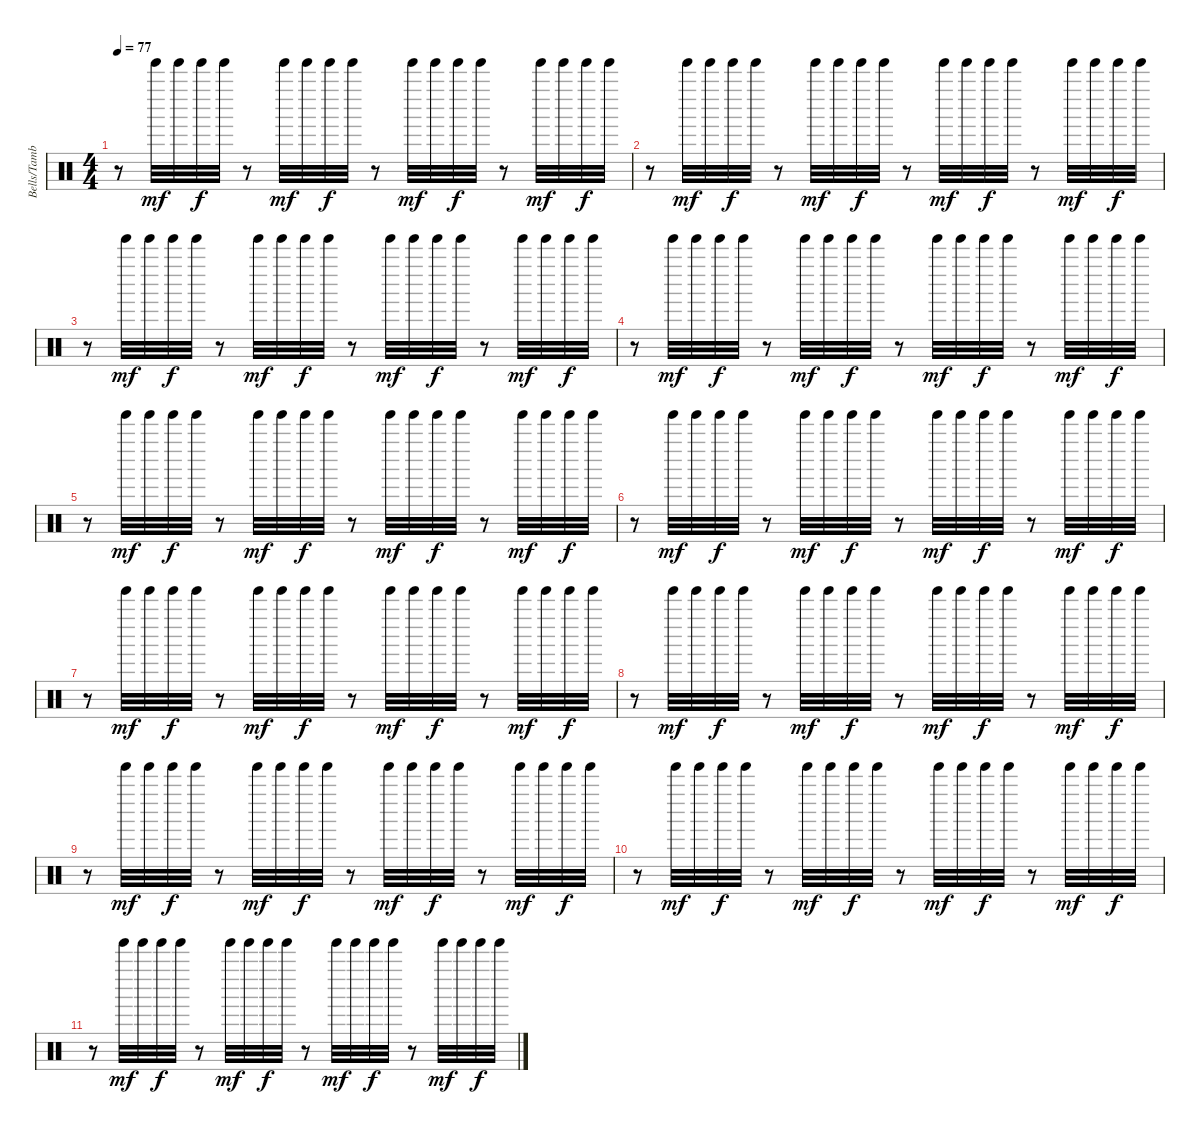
\track ("Bells/Tambo" "Bells/Tamb") {instrument percussion}
\staff {score}
\articulation defaults
\ts (4 4)
\tempo 77
\clef neutral
\ks c
r.8{dy f} "Tinkle Bell (hit)".32{dy mf} "Tinkle Bell (hit)".32 "Tinkle Bell (hit)".32{dy f} "Tinkle Bell (hit)".32 r.8 "Tinkle Bell (hit)".32{dy mf} "Tinkle Bell (hit)".32 "Tinkle Bell (hit)".32{dy f} "Tinkle Bell (hit)".32 r.8 "Tinkle Bell (hit)".32{dy mf} "Tinkle Bell (hit)".32 "Tinkle Bell (hit)".32{dy f} "Tinkle Bell (hit)".32 r.8 "Tinkle Bell (hit)".32{dy mf} "Tinkle Bell (hit)".32 "Tinkle Bell (hit)".32{dy f} "Tinkle Bell (hit)".32 |
r.8 "Tinkle Bell (hit)".32{dy mf} "Tinkle Bell (hit)".32 "Tinkle Bell (hit)".32{dy f} "Tinkle Bell (hit)".32 r.8 "Tinkle Bell (hit)".32{dy mf} "Tinkle Bell (hit)".32 "Tinkle Bell (hit)".32{dy f} "Tinkle Bell (hit)".32 r.8 "Tinkle Bell (hit)".32{dy mf} "Tinkle Bell (hit)".32 "Tinkle Bell (hit)".32{dy f} "Tinkle Bell (hit)".32 r.8 "Tinkle Bell (hit)".32{dy mf} "Tinkle Bell (hit)".32 "Tinkle Bell (hit)".32{dy f} "Tinkle Bell (hit)".32 |
r.8 "Tinkle Bell (hit)".32{dy mf} "Tinkle Bell (hit)".32 "Tinkle Bell (hit)".32{dy f} "Tinkle Bell (hit)".32 r.8 "Tinkle Bell (hit)".32{dy mf} "Tinkle Bell (hit)".32 "Tinkle Bell (hit)".32{dy f} "Tinkle Bell (hit)".32 r.8 "Tinkle Bell (hit)".32{dy mf} "Tinkle Bell (hit)".32 "Tinkle Bell (hit)".32{dy f} "Tinkle Bell (hit)".32 r.8 "Tinkle Bell (hit)".32{dy mf} "Tinkle Bell (hit)".32 "Tinkle Bell (hit)".32{dy f} "Tinkle Bell (hit)".32 |
r.8 "Tinkle Bell (hit)".32{dy mf} "Tinkle Bell (hit)".32 "Tinkle Bell (hit)".32{dy f} "Tinkle Bell (hit)".32 r.8 "Tinkle Bell (hit)".32{dy mf} "Tinkle Bell (hit)".32 "Tinkle Bell (hit)".32{dy f} "Tinkle Bell (hit)".32 r.8 "Tinkle Bell (hit)".32{dy mf} "Tinkle Bell (hit)".32 "Tinkle Bell (hit)".32{dy f} "Tinkle Bell (hit)".32 r.8 "Tinkle Bell (hit)".32{dy mf} "Tinkle Bell (hit)".32 "Tinkle Bell (hit)".32{dy f} "Tinkle Bell (hit)".32 |
r.8 "Tinkle Bell (hit)".32{dy mf} "Tinkle Bell (hit)".32 "Tinkle Bell (hit)".32{dy f} "Tinkle Bell (hit)".32 r.8 "Tinkle Bell (hit)".32{dy mf} "Tinkle Bell (hit)".32 "Tinkle Bell (hit)".32{dy f} "Tinkle Bell (hit)".32 r.8 "Tinkle Bell (hit)".32{dy mf} "Tinkle Bell (hit)".32 "Tinkle Bell (hit)".32{dy f} "Tinkle Bell (hit)".32 r.8 "Tinkle Bell (hit)".32{dy mf} "Tinkle Bell (hit)".32 "Tinkle Bell (hit)".32{dy f} "Tinkle Bell (hit)".32 |
r.8 "Tinkle Bell (hit)".32{dy mf} "Tinkle Bell (hit)".32 "Tinkle Bell (hit)".32{dy f} "Tinkle Bell (hit)".32 r.8 "Tinkle Bell (hit)".32{dy mf} "Tinkle Bell (hit)".32 "Tinkle Bell (hit)".32{dy f} "Tinkle Bell (hit)".32 r.8 "Tinkle Bell (hit)".32{dy mf} "Tinkle Bell (hit)".32 "Tinkle Bell (hit)".32{dy f} "Tinkle Bell (hit)".32 r.8 "Tinkle Bell (hit)".32{dy mf} "Tinkle Bell (hit)".32 "Tinkle Bell (hit)".32{dy f} "Tinkle Bell (hit)".32 |
r.8 "Tinkle Bell (hit)".32{dy mf} "Tinkle Bell (hit)".32 "Tinkle Bell (hit)".32{dy f} "Tinkle Bell (hit)".32 r.8 "Tinkle Bell (hit)".32{dy mf} "Tinkle Bell (hit)".32 "Tinkle Bell (hit)".32{dy f} "Tinkle Bell (hit)".32 r.8 "Tinkle Bell (hit)".32{dy mf} "Tinkle Bell (hit)".32 "Tinkle Bell (hit)".32{dy f} "Tinkle Bell (hit)".32 r.8 "Tinkle Bell (hit)".32{dy mf} "Tinkle Bell (hit)".32 "Tinkle Bell (hit)".32{dy f} "Tinkle Bell (hit)".32 |
r.8 "Tinkle Bell (hit)".32{dy mf} "Tinkle Bell (hit)".32 "Tinkle Bell (hit)".32{dy f} "Tinkle Bell (hit)".32 r.8 "Tinkle Bell (hit)".32{dy mf} "Tinkle Bell (hit)".32 "Tinkle Bell (hit)".32{dy f} "Tinkle Bell (hit)".32 r.8 "Tinkle Bell (hit)".32{dy mf} "Tinkle Bell (hit)".32 "Tinkle Bell (hit)".32{dy f} "Tinkle Bell (hit)".32 r.8 "Tinkle Bell (hit)".32{dy mf} "Tinkle Bell (hit)".32 "Tinkle Bell (hit)".32{dy f} "Tinkle Bell (hit)".32 |
r.8 "Tinkle Bell (hit)".32{dy mf} "Tinkle Bell (hit)".32 "Tinkle Bell (hit)".32{dy f} "Tinkle Bell (hit)".32 r.8 "Tinkle Bell (hit)".32{dy mf} "Tinkle Bell (hit)".32 "Tinkle Bell (hit)".32{dy f} "Tinkle Bell (hit)".32 r.8 "Tinkle Bell (hit)".32{dy mf} "Tinkle Bell (hit)".32 "Tinkle Bell (hit)".32{dy f} "Tinkle Bell (hit)".32 r.8 "Tinkle Bell (hit)".32{dy mf} "Tinkle Bell (hit)".32 "Tinkle Bell (hit)".32{dy f} "Tinkle Bell (hit)".32 |
r.8 "Tinkle Bell (hit)".32{dy mf} "Tinkle Bell (hit)".32 "Tinkle Bell (hit)".32{dy f} "Tinkle Bell (hit)".32 r.8 "Tinkle Bell (hit)".32{dy mf} "Tinkle Bell (hit)".32 "Tinkle Bell (hit)".32{dy f} "Tinkle Bell (hit)".32 r.8 "Tinkle Bell (hit)".32{dy mf} "Tinkle Bell (hit)".32 "Tinkle Bell (hit)".32{dy f} "Tinkle Bell (hit)".32 r.8 "Tinkle Bell (hit)".32{dy mf} "Tinkle Bell (hit)".32 "Tinkle Bell (hit)".32{dy f} "Tinkle Bell (hit)".32 |
r.8 "Tinkle Bell (hit)".32{dy mf} "Tinkle Bell (hit)".32 "Tinkle Bell (hit)".32{dy f} "Tinkle Bell (hit)".32 r.8 "Tinkle Bell (hit)".32{dy mf} "Tinkle Bell (hit)".32 "Tinkle Bell (hit)".32{dy f} "Tinkle Bell (hit)".32 r.8 "Tinkle Bell (hit)".32{dy mf} "Tinkle Bell (hit)".32 "Tinkle Bell (hit)".32{dy f} "Tinkle Bell (hit)".32 r.8 "Tinkle Bell (hit)".32{dy mf} "Tinkle Bell (hit)".32 "Tinkle Bell (hit)".32{dy f} "Tinkle Bell (hit)".32
